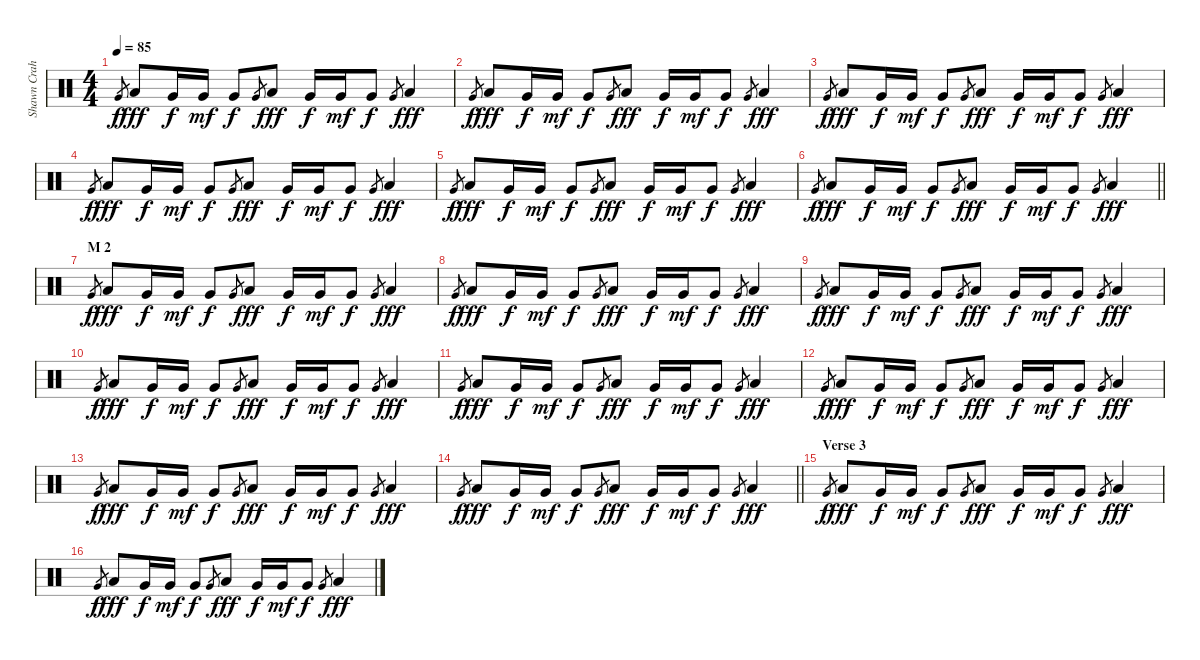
\track ("Shawn Crahan" "Shawn Crah") {instrument percussion}
\staff {score}
\articulation defaults
\ts (4 4)
\tempo 85
\clef neutral
\ks c "Very Low Tom (hit)".8{gr dy f} "Low Tom (hit)".8{dy fff} "Very Low Tom (hit)".16{dy f} "Very Low Tom (hit)".16{dy mf} "Very Low Tom (hit)".8{dy f} "Very Low Tom (hit)".8{gr} "Low Tom (hit)".8{dy fff} "Very Low Tom (hit)".16{dy f} "Very Low Tom (hit)".16{dy mf} "Very Low Tom (hit)".8{dy f} "Very Low Tom (hit)".8{gr} "Low Tom (hit)".4{dy fff}
|
"Very Low Tom (hit)".8{gr dy f} "Low Tom (hit)".8{dy fff} "Very Low Tom (hit)".16{dy f} "Very Low Tom (hit)".16{dy mf} "Very Low Tom (hit)".8{dy f} "Very Low Tom (hit)".8{gr} "Low Tom (hit)".8{dy fff} "Very Low Tom (hit)".16{dy f} "Very Low Tom (hit)".16{dy mf} "Very Low Tom (hit)".8{dy f} "Very Low Tom (hit)".8{gr} "Low Tom (hit)".4{dy fff} |
"Very Low Tom (hit)".8{gr dy f} "Low Tom (hit)".8{dy fff} "Very Low Tom (hit)".16{dy f} "Very Low Tom (hit)".16{dy mf} "Very Low Tom (hit)".8{dy f} "Very Low Tom (hit)".8{gr} "Low Tom (hit)".8{dy fff} "Very Low Tom (hit)".16{dy f} "Very Low Tom (hit)".16{dy mf} "Very Low Tom (hit)".8{dy f} "Very Low Tom (hit)".8{gr} "Low Tom (hit)".4{dy fff} |
"Very Low Tom (hit)".8{gr dy f} "Low Tom (hit)".8{dy fff} "Very Low Tom (hit)".16{dy f} "Very Low Tom (hit)".16{dy mf} "Very Low Tom (hit)".8{dy f} "Very Low Tom (hit)".8{gr} "Low Tom (hit)".8{dy fff} "Very Low Tom (hit)".16{dy f} "Very Low Tom (hit)".16{dy mf} "Very Low Tom (hit)".8{dy f} "Very Low Tom (hit)".8{gr} "Low Tom (hit)".4{dy fff} |
"Very Low Tom (hit)".8{gr dy f} "Low Tom (hit)".8{dy fff} "Very Low Tom (hit)".16{dy f} "Very Low Tom (hit)".16{dy mf} "Very Low Tom (hit)".8{dy f} "Very Low Tom (hit)".8{gr} "Low Tom (hit)".8{dy fff} "Very Low Tom (hit)".16{dy f} "Very Low Tom (hit)".16{dy mf} "Very Low Tom (hit)".8{dy f} "Very Low Tom (hit)".8{gr} "Low Tom (hit)".4{dy fff} |
\barLineRight lightlight "Very Low Tom (hit)".8{gr dy f} "Low Tom (hit)".8{dy fff} "Very Low Tom (hit)".16{dy f} "Very Low Tom (hit)".16{dy mf} "Very Low Tom (hit)".8{dy f} "Very Low Tom (hit)".8{gr} "Low Tom (hit)".8{dy fff} "Very Low Tom (hit)".16{dy f} "Very Low Tom (hit)".16{dy mf} "Very Low Tom (hit)".8{dy f} "Very Low Tom (hit)".8{gr} "Low Tom (hit)".4{dy fff}
|
\section ("" "M 2")
"Very Low Tom (hit)".8{gr dy f} "Low Tom (hit)".8{dy fff} "Very Low Tom (hit)".16{dy f} "Very Low Tom (hit)".16{dy mf} "Very Low Tom (hit)".8{dy f} "Very Low Tom (hit)".8{gr} "Low Tom (hit)".8{dy fff} "Very Low Tom (hit)".16{dy f} "Very Low Tom (hit)".16{dy mf} "Very Low Tom (hit)".8{dy f} "Very Low Tom (hit)".8{gr} "Low Tom (hit)".4{dy fff} |
"Very Low Tom (hit)".8{gr dy f} "Low Tom (hit)".8{dy fff} "Very Low Tom (hit)".16{dy f} "Very Low Tom (hit)".16{dy mf} "Very Low Tom (hit)".8{dy f} "Very Low Tom (hit)".8{gr} "Low Tom (hit)".8{dy fff} "Very Low Tom (hit)".16{dy f} "Very Low Tom (hit)".16{dy mf} "Very Low Tom (hit)".8{dy f} "Very Low Tom (hit)".8{gr} "Low Tom (hit)".4{dy fff} |
"Very Low Tom (hit)".8{gr dy f} "Low Tom (hit)".8{dy fff} "Very Low Tom (hit)".16{dy f} "Very Low Tom (hit)".16{dy mf} "Very Low Tom (hit)".8{dy f} "Very Low Tom (hit)".8{gr} "Low Tom (hit)".8{dy fff} "Very Low Tom (hit)".16{dy f} "Very Low Tom (hit)".16{dy mf} "Very Low Tom (hit)".8{dy f} "Very Low Tom (hit)".8{gr} "Low Tom (hit)".4{dy fff} |
"Very Low Tom (hit)".8{gr dy f} "Low Tom (hit)".8{dy fff} "Very Low Tom (hit)".16{dy f} "Very Low Tom (hit)".16{dy mf} "Very Low Tom (hit)".8{dy f} "Very Low Tom (hit)".8{gr} "Low Tom (hit)".8{dy fff} "Very Low Tom (hit)".16{dy f} "Very Low Tom (hit)".16{dy mf} "Very Low Tom (hit)".8{dy f} "Very Low Tom (hit)".8{gr} "Low Tom (hit)".4{dy fff} |
"Very Low Tom (hit)".8{gr dy f} "Low Tom (hit)".8{dy fff} "Very Low Tom (hit)".16{dy f} "Very Low Tom (hit)".16{dy mf} "Very Low Tom (hit)".8{dy f} "Very Low Tom (hit)".8{gr} "Low Tom (hit)".8{dy fff} "Very Low Tom (hit)".16{dy f} "Very Low Tom (hit)".16{dy mf} "Very Low Tom (hit)".8{dy f} "Very Low Tom (hit)".8{gr} "Low Tom (hit)".4{dy fff} |
"Very Low Tom (hit)".8{gr dy f} "Low Tom (hit)".8{dy fff} "Very Low Tom (hit)".16{dy f} "Very Low Tom (hit)".16{dy mf} "Very Low Tom (hit)".8{dy f} "Very Low Tom (hit)".8{gr} "Low Tom (hit)".8{dy fff} "Very Low Tom (hit)".16{dy f} "Very Low Tom (hit)".16{dy mf} "Very Low Tom (hit)".8{dy f} "Very Low Tom (hit)".8{gr} "Low Tom (hit)".4{dy fff} |
"Very Low Tom (hit)".8{gr dy f} "Low Tom (hit)".8{dy fff} "Very Low Tom (hit)".16{dy f} "Very Low Tom (hit)".16{dy mf} "Very Low Tom (hit)".8{dy f} "Very Low Tom (hit)".8{gr} "Low Tom (hit)".8{dy fff} "Very Low Tom (hit)".16{dy f} "Very Low Tom (hit)".16{dy mf} "Very Low Tom (hit)".8{dy f} "Very Low Tom (hit)".8{gr} "Low Tom (hit)".4{dy fff} |
\barLineRight lightlight "Very Low Tom (hit)".8{gr dy f} "Low Tom (hit)".8{dy fff} "Very Low Tom (hit)".16{dy f} "Very Low Tom (hit)".16{dy mf} "Very Low Tom (hit)".8{dy f} "Very Low Tom (hit)".8{gr} "Low Tom (hit)".8{dy fff} "Very Low Tom (hit)".16{dy f} "Very Low Tom (hit)".16{dy mf} "Very Low Tom (hit)".8{dy f} "Very Low Tom (hit)".8{gr} "Low Tom (hit)".4{dy fff}
|
\section ("" "Verse 3")
"Very Low Tom (hit)".8{gr dy f} "Low Tom (hit)".8{dy fff} "Very Low Tom (hit)".16{dy f} "Very Low Tom (hit)".16{dy mf} "Very Low Tom (hit)".8{dy f} "Very Low Tom (hit)".8{gr} "Low Tom (hit)".8{dy fff} "Very Low Tom (hit)".16{dy f} "Very Low Tom (hit)".16{dy mf} "Very Low Tom (hit)".8{dy f} "Very Low Tom (hit)".8{gr} "Low Tom (hit)".4{dy fff} |
"Very Low Tom (hit)".8{gr dy f} "Low Tom (hit)".8{dy fff} "Very Low Tom (hit)".16{dy f} "Very Low Tom (hit)".16{dy mf} "Very Low Tom (hit)".8{dy f} "Very Low Tom (hit)".8{gr} "Low Tom (hit)".8{dy fff} "Very Low Tom (hit)".16{dy f} "Very Low Tom (hit)".16{dy mf} "Very Low Tom (hit)".8{dy f} "Very Low Tom (hit)".8{gr} "Low Tom (hit)".4{dy fff}
